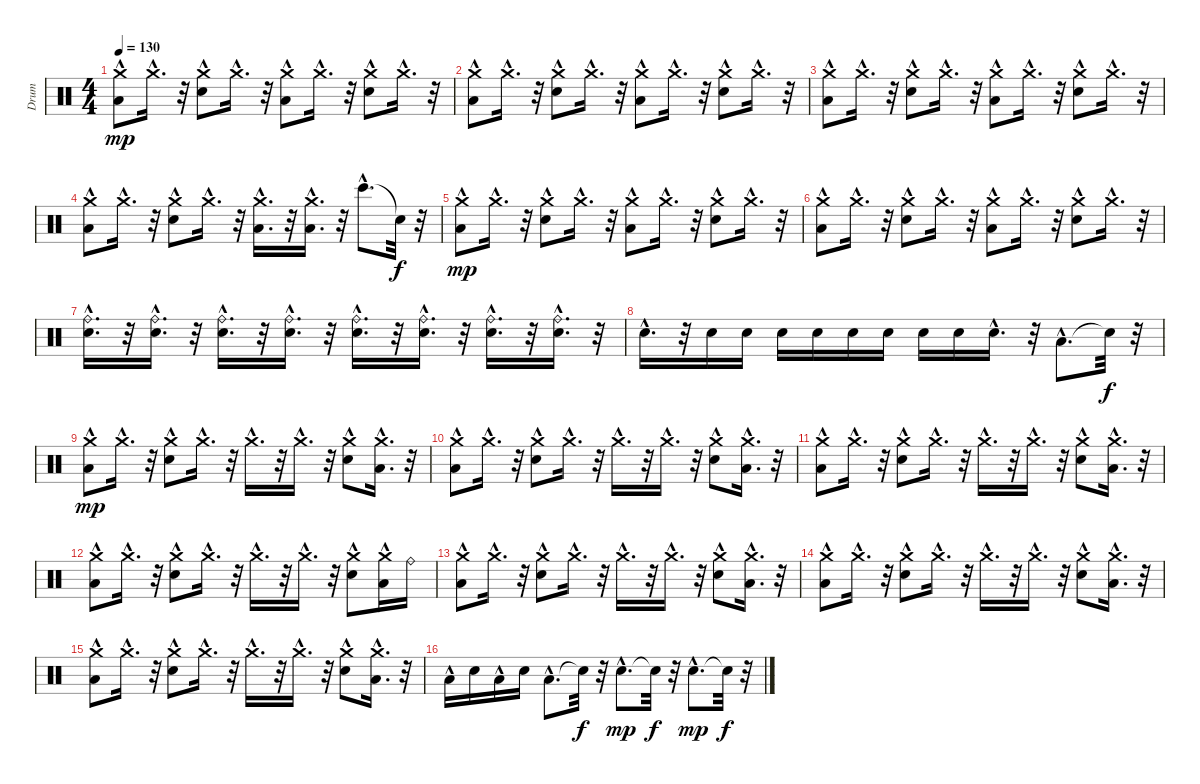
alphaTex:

\track ("Drum" "Drum") {instrument percussion}
\staff {score}
\articulation defaults
\ts (4 4)
\tempo 130
\clef neutral
\ks c
("Low Tom (hit)"{hac} "Crash medium (hit)"{hac}).8{dy mp} "Crash medium (hit)"{hac}.16{d} r.32 ("Snare (hit) 2"{hac} "Crash medium (hit)"{hac}).8 "Crash medium (hit)"{hac}.16{d} r.32 ("Low Tom (hit)"{hac} "Crash medium (hit)"{hac}).8 "Crash medium (hit)"{hac}.16{d} r.32 ("Snare (hit) 2"{hac} "Crash medium (hit)"{hac}).8 "Crash medium (hit)"{hac}.16{d} r.32 |
("Low Tom (hit)"{hac} "Crash medium (hit)"{hac}).8 "Crash medium (hit)"{hac}.16{d} r.32 ("Snare (hit) 2"{hac} "Crash medium (hit)"{hac}).8 "Crash medium (hit)"{hac}.16{d} r.32 ("Low Tom (hit)"{hac} "Crash medium (hit)"{hac}).8 "Crash medium (hit)"{hac}.16{d} r.32 ("Snare (hit) 2"{hac} "Crash medium (hit)"{hac}).8 "Crash medium (hit)"{hac}.16{d} r.32 |
("Low Tom (hit)"{hac} "Crash medium (hit)"{hac}).8 "Crash medium (hit)"{hac}.16{d} r.32 ("Snare (hit) 2"{hac} "Crash medium (hit)"{hac}).8 "Crash medium (hit)"{hac}.16{d} r.32 ("Low Tom (hit)"{hac} "Crash medium (hit)"{hac}).8 "Crash medium (hit)"{hac}.16{d} r.32 ("Snare (hit) 2"{hac} "Crash medium (hit)"{hac}).8 "Crash medium (hit)"{hac}.16{d} r.32 |
("Low Tom (hit)"{hac} "Crash medium (hit)"{hac}).8 "Crash medium (hit)"{hac}.16{d} r.32 ("Snare (hit) 2"{hac} "Crash medium (hit)"{hac}).8 "Crash medium (hit)"{hac}.16{d} r.32 ("Low Tom (hit)"{hac} "Crash medium (hit)"{hac}).16{d} r.32 ("Low Tom (hit)"{hac} "Crash medium (hit)"{hac}).16{d} r.32 "Bongo High (hit)"{hac}.8{d} "Snare (hit)"{t}.32{dy f} r.32 |
("Low Tom (hit)"{hac} "Crash medium (hit)"{hac}).8{dy mp} "Crash medium (hit)"{hac}.16{d} r.32 ("Snare (hit) 2"{hac} "Crash medium (hit)"{hac}).8 "Crash medium (hit)"{hac}.16{d} r.32 ("Low Tom (hit)"{hac} "Crash medium (hit)"{hac}).8 "Crash medium (hit)"{hac}.16{d} r.32 ("Snare (hit) 2"{hac} "Crash medium (hit)"{hac}).8 "Crash medium (hit)"{hac}.16{d} r.32 |
("Low Tom (hit)"{hac} "Crash medium (hit)"{hac}).8 "Crash medium (hit)"{hac}.16{d} r.32 ("Snare (hit) 2"{hac} "Crash medium (hit)"{hac}).8 "Crash medium (hit)"{hac}.16{d} r.32 ("Low Tom (hit)"{hac} "Crash medium (hit)"{hac}).8 "Crash medium (hit)"{hac}.16{d} r.32 ("Snare (hit) 2"{hac} "Crash medium (hit)"{hac}).8 "Crash medium (hit)"{hac}.16{d} r.32 |
("Snare (hit) 2"{hac} "Ride (bell)"{hac}).16{d} r.32 ("Snare (hit) 2"{hac} "Ride (bell)"{hac}).16{d} r.32 ("Snare (hit) 2"{hac} "Ride (bell)"{hac}).16{d} r.32 ("Snare (hit) 2"{hac} "Ride (bell)"{hac}).16{d} r.32 ("Snare (hit) 2"{hac} "Ride (bell)"{hac}).16{d} r.32 ("Snare (hit) 2"{hac} "Ride (bell)"{hac}).16{d} r.32 ("Snare (hit) 2"{hac} "Ride (bell)"{hac}).16{d} r.32 ("Snare (hit) 2"{hac} "Ride (bell)"{hac}).16{d} r.32 |
"Snare (hit) 2"{hac}.16{d} r.32 "Snare (hit) 2".16 "Snare (hit) 2".16 "Snare (hit) 2".16 "Snare (hit) 2".16 "Snare (hit) 2".16 "Snare (hit) 2".16 "Snare (hit) 2".16 "Snare (hit) 2".16 "Snare (hit) 2"{hac}.16{d} r.32 "Low Tom (hit)"{hac}.8{d} "Snare (hit)"{t}.32{dy f} r.32 |
("Low Tom (hit)"{hac} "Crash medium (hit)"{hac}).8{dy mp} "Crash medium (hit)"{hac}.16{d} r.32 ("Snare (hit) 2"{hac} "Crash medium (hit)"{hac}).8 "Crash medium (hit)"{hac}.16{d} r.32 "Crash medium (hit)"{hac}.16{d} r.32 "Crash medium (hit)"{hac}.16{d} r.32 ("Snare (hit) 2"{hac} "Crash medium (hit)"{hac}).8 ("Low Tom (hit)"{hac} "Crash medium (hit)"{hac}).16{d} r.32 |
("Low Tom (hit)"{hac} "Crash medium (hit)"{hac}).8 "Crash medium (hit)"{hac}.16{d} r.32 ("Snare (hit) 2"{hac} "Crash medium (hit)"{hac}).8 "Crash medium (hit)"{hac}.16{d} r.32 "Crash medium (hit)"{hac}.16{d} r.32 "Crash medium (hit)"{hac}.16{d} r.32 ("Snare (hit) 2"{hac} "Crash medium (hit)"{hac}).8 ("Low Tom (hit)"{hac} "Crash medium (hit)"{hac}).16{d} r.32 |
("Low Tom (hit)"{hac} "Crash medium (hit)"{hac}).8 "Crash medium (hit)"{hac}.16{d} r.32 ("Snare (hit) 2"{hac} "Crash medium (hit)"{hac}).8 "Crash medium (hit)"{hac}.16{d} r.32 "Crash medium (hit)"{hac}.16{d} r.32 "Crash medium (hit)"{hac}.16{d} r.32 ("Snare (hit) 2"{hac} "Crash medium (hit)"{hac}).8 ("Low Tom (hit)"{hac} "Crash medium (hit)"{hac}).16{d} r.32 |
("Low Tom (hit)"{hac} "Crash medium (hit)"{hac}).8 "Crash medium (hit)"{hac}.16{d} r.32 ("Snare (hit) 2"{hac} "Crash medium (hit)"{hac}).8 "Crash medium (hit)"{hac}.16{d} r.32 "Crash medium (hit)"{hac}.16{d} r.32 "Crash medium (hit)"{hac}.16{d} r.32 ("Snare (hit) 2"{hac} "Crash medium (hit)"{hac}).8 ("Low Tom (hit)"{hac} "Crash medium (hit)").16 "Ride (bell)".16 |
("Low Tom (hit)"{hac} "Crash medium (hit)"{hac}).8 "Crash medium (hit)"{hac}.16{d} r.32 ("Snare (hit) 2"{hac} "Crash medium (hit)"{hac}).8 "Crash medium (hit)"{hac}.16{d} r.32 "Crash medium (hit)"{hac}.16{d} r.32 "Crash medium (hit)"{hac}.16{d} r.32 ("Snare (hit) 2"{hac} "Crash medium (hit)"{hac}).8 ("Low Tom (hit)"{hac} "Crash medium (hit)"{hac}).16{d} r.32 |
("Low Tom (hit)"{hac} "Crash medium (hit)"{hac}).8 "Crash medium (hit)"{hac}.16{d} r.32 ("Snare (hit) 2"{hac} "Crash medium (hit)"{hac}).8 "Crash medium (hit)"{hac}.16{d} r.32 "Crash medium (hit)"{hac}.16{d} r.32 "Crash medium (hit)"{hac}.16{d} r.32 ("Snare (hit) 2"{hac} "Crash medium (hit)"{hac}).8 ("Low Tom (hit)"{hac} "Crash medium (hit)"{hac}).16{d} r.32 |
("Low Tom (hit)"{hac} "Crash medium (hit)"{hac}).8 "Crash medium (hit)"{hac}.16{d} r.32 ("Snare (hit) 2"{hac} "Crash medium (hit)"{hac}).8 "Crash medium (hit)"{hac}.16{d} r.32 "Crash medium (hit)"{hac}.16{d} r.32 "Crash medium (hit)"{hac}.16{d} r.32 ("Snare (hit) 2"{hac} "Crash medium (hit)"{hac}).8 ("Low Tom (hit)"{hac} "Crash medium (hit)"{hac}).16{d} r.32 |
"Low Tom (hit)"{hac}.16 "Snare (hit) 2".16 "Low Tom (hit)"{hac}.16 "Snare (hit) 2".16 "Low Tom (hit)"{hac}.8{d} "Snare (hit)"{t}.32{dy f} r.32 "Snare (hit) 2"{hac}.8{d dy mp} "Snare (hit)"{t}.32{dy f} r.32 "Snare (hit) 2"{hac}.8{d dy mp} "Snare (hit)"{t}.32{dy f} r.32
